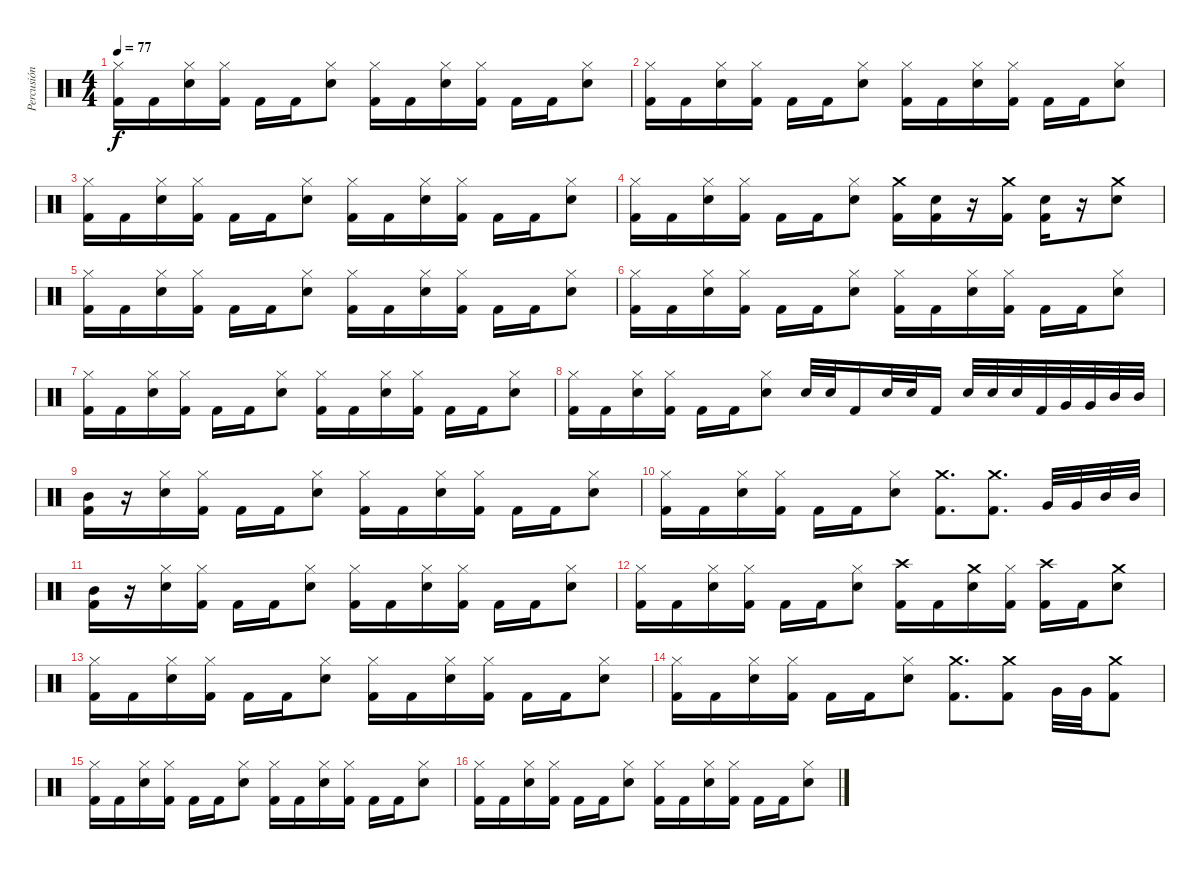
\track ("Percusión" "Percusión") {instrument percussion}
\staff {score}
\articulation defaults
\ts (4 4)
\tempo 77
\clef neutral
\ks c
("Kick (hit) 2" "Hi-Hat (closed)").16{dy f} "Kick (hit) 2".16 ("Electric Snare (hit)" "Hi-Hat (closed)").16 ("Kick (hit) 2" "Hi-Hat (closed)").16 "Kick (hit) 2".16 "Kick (hit) 2".16 ("Electric Snare (hit)" "Hi-Hat (closed)").8 ("Kick (hit) 2" "Hi-Hat (closed)").16 "Kick (hit) 2".16 ("Electric Snare (hit)" "Hi-Hat (closed)").16 ("Kick (hit) 2" "Hi-Hat (closed)").16 "Kick (hit) 2".16 "Kick (hit) 2".16 ("Electric Snare (hit)" "Hi-Hat (closed)").8 |
("Kick (hit) 2" "Hi-Hat (closed)").16 "Kick (hit) 2".16 ("Electric Snare (hit)" "Hi-Hat (closed)").16 ("Kick (hit) 2" "Hi-Hat (closed)").16 "Kick (hit) 2".16 "Kick (hit) 2".16 ("Electric Snare (hit)" "Hi-Hat (closed)").8 ("Kick (hit) 2" "Hi-Hat (closed)").16 "Kick (hit) 2".16 ("Electric Snare (hit)" "Hi-Hat (closed)").16 ("Kick (hit) 2" "Hi-Hat (closed)").16 "Kick (hit) 2".16 "Kick (hit) 2".16 ("Electric Snare (hit)" "Hi-Hat (closed)").8 |
("Kick (hit) 2" "Hi-Hat (closed)").16 "Kick (hit) 2".16 ("Electric Snare (hit)" "Hi-Hat (closed)").16 ("Kick (hit) 2" "Hi-Hat (closed)").16 "Kick (hit) 2".16 "Kick (hit) 2".16 ("Electric Snare (hit)" "Hi-Hat (closed)").8 ("Kick (hit) 2" "Hi-Hat (closed)").16 "Kick (hit) 2".16 ("Electric Snare (hit)" "Hi-Hat (closed)").16 ("Kick (hit) 2" "Hi-Hat (closed)").16 "Kick (hit) 2".16 "Kick (hit) 2".16 ("Electric Snare (hit)" "Hi-Hat (closed)").8 |
("Kick (hit) 2" "Hi-Hat (closed)").16 "Kick (hit) 2".16 ("Electric Snare (hit)" "Hi-Hat (closed)").16 ("Kick (hit) 2" "Hi-Hat (closed)").16 "Kick (hit) 2".16 "Kick (hit) 2".16 ("Electric Snare (hit)" "Hi-Hat (closed)").8 ("Kick (hit) 2" "Crash medium (hit)").16 ("Kick (hit) 2" "Electric Snare (hit)").16 r.16 ("Kick (hit) 2" "Crash medium (hit)").16 ("Kick (hit) 2" "Electric Snare (hit)").16 r.16 ("Electric Snare (hit)" "Crash medium (hit)").8 |
("Kick (hit) 2" "Hi-Hat (closed)").16 "Kick (hit) 2".16 ("Electric Snare (hit)" "Hi-Hat (closed)").16 ("Kick (hit) 2" "Hi-Hat (closed)").16 "Kick (hit) 2".16 "Kick (hit) 2".16 ("Electric Snare (hit)" "Hi-Hat (closed)").8 ("Kick (hit) 2" "Hi-Hat (closed)").16 "Kick (hit) 2".16 ("Electric Snare (hit)" "Hi-Hat (closed)").16 ("Kick (hit) 2" "Hi-Hat (closed)").16 "Kick (hit) 2".16 "Kick (hit) 2".16 ("Electric Snare (hit)" "Hi-Hat (closed)").8 |
("Kick (hit) 2" "Hi-Hat (closed)").16 "Kick (hit) 2".16 ("Electric Snare (hit)" "Hi-Hat (closed)").16 ("Kick (hit) 2" "Hi-Hat (closed)").16 "Kick (hit) 2".16 "Kick (hit) 2".16 ("Electric Snare (hit)" "Hi-Hat (closed)").8 ("Kick (hit) 2" "Hi-Hat (closed)").16 "Kick (hit) 2".16 ("Electric Snare (hit)" "Hi-Hat (closed)").16 ("Kick (hit) 2" "Hi-Hat (closed)").16 "Kick (hit) 2".16 "Kick (hit) 2".16 ("Electric Snare (hit)" "Hi-Hat (closed)").8 |
("Kick (hit) 2" "Hi-Hat (closed)").16 "Kick (hit) 2".16 ("Electric Snare (hit)" "Hi-Hat (closed)").16 ("Kick (hit) 2" "Hi-Hat (closed)").16 "Kick (hit) 2".16 "Kick (hit) 2".16 ("Electric Snare (hit)" "Hi-Hat (closed)").8 ("Kick (hit) 2" "Hi-Hat (closed)").16 "Kick (hit) 2".16 ("Electric Snare (hit)" "Hi-Hat (closed)").16 ("Kick (hit) 2" "Hi-Hat (closed)").16 "Kick (hit) 2".16 "Kick (hit) 2".16 ("Electric Snare (hit)" "Hi-Hat (closed)").8 |
("Kick (hit) 2" "Hi-Hat (closed)").16 "Kick (hit) 2".16 ("Electric Snare (hit)" "Hi-Hat (closed)").16 ("Kick (hit) 2" "Hi-Hat (closed)").16 "Kick (hit) 2".16 "Kick (hit) 2".16 ("Electric Snare (hit)" "Hi-Hat (closed)").8 "Electric Snare (hit)".32 "Electric Snare (hit)".32 "Kick (hit) 2".16 "Electric Snare (hit)".32 "Electric Snare (hit)".32 "Kick (hit) 2".16 "Electric Snare (hit)".32 "Electric Snare (hit)".32 "Electric Snare (hit)".32 "Kick (hit) 2".32 "Very Low Tom (hit)".32 "Very Low Tom (hit)".32 "Mid Tom (hit)".32 "Mid Tom (hit)".32 |
("Kick (hit) 2" "Mid Tom (hit)").16 r.16 ("Electric Snare (hit)" "Hi-Hat (closed)").16 ("Kick (hit) 2" "Hi-Hat (closed)").16 "Kick (hit) 2".16 "Kick (hit) 2".16 ("Electric Snare (hit)" "Hi-Hat (closed)").8 ("Kick (hit) 2" "Hi-Hat (closed)").16 "Kick (hit) 2".16 ("Electric Snare (hit)" "Hi-Hat (closed)").16 ("Kick (hit) 2" "Hi-Hat (closed)").16 "Kick (hit) 2".16 "Kick (hit) 2".16 ("Electric Snare (hit)" "Hi-Hat (closed)").8 |
("Kick (hit) 2" "Hi-Hat (closed)").16 "Kick (hit) 2".16 ("Electric Snare (hit)" "Hi-Hat (closed)").16 ("Kick (hit) 2" "Hi-Hat (closed)").16 "Kick (hit) 2".16 "Kick (hit) 2".16 ("Electric Snare (hit)" "Hi-Hat (closed)").8 ("Kick (hit) 2" "Crash medium (hit)").8{d} ("Kick (hit) 2" "Crash medium (hit)").8{d} "Very Low Tom (hit)".32 "Very Low Tom (hit)".32 "Mid Tom (hit)".32 "Mid Tom (hit)".32 |
("Kick (hit) 2" "Mid Tom (hit)").16 r.16 ("Electric Snare (hit)" "Hi-Hat (closed)").16 ("Kick (hit) 2" "Hi-Hat (closed)").16 "Kick (hit) 2".16 "Kick (hit) 2".16 ("Electric Snare (hit)" "Hi-Hat (closed)").8 ("Kick (hit) 2" "Hi-Hat (closed)").16 "Kick (hit) 2".16 ("Electric Snare (hit)" "Hi-Hat (closed)").16 ("Kick (hit) 2" "Hi-Hat (closed)").16 "Kick (hit) 2".16 "Kick (hit) 2".16 ("Electric Snare (hit)" "Hi-Hat (closed)").8 |
("Kick (hit) 2" "Hi-Hat (closed)").16 "Kick (hit) 2".16 ("Electric Snare (hit)" "Hi-Hat (closed)").16 ("Kick (hit) 2" "Hi-Hat (closed)").16 "Kick (hit) 2".16 "Kick (hit) 2".16 ("Electric Snare (hit)" "Hi-Hat (closed)").8 ("Kick (hit) 2" "Crash high (hit)").16 "Kick (hit) 2".16 ("Electric Snare (hit)" "Crash medium (hit)").16 ("Kick (hit) 2" "Hi-Hat (closed)").16 ("Kick (hit) 2" "Crash high (hit)").16 "Kick (hit) 2".16 ("Electric Snare (hit)" "Crash medium (hit)").8 |
("Kick (hit) 2" "Hi-Hat (closed)").16 "Kick (hit) 2".16 ("Electric Snare (hit)" "Hi-Hat (closed)").16 ("Kick (hit) 2" "Hi-Hat (closed)").16 "Kick (hit) 2".16 "Kick (hit) 2".16 ("Electric Snare (hit)" "Hi-Hat (closed)").8 ("Kick (hit) 2" "Hi-Hat (closed)").16 "Kick (hit) 2".16 ("Electric Snare (hit)" "Hi-Hat (closed)").16 ("Kick (hit) 2" "Hi-Hat (closed)").16 "Kick (hit) 2".16 "Kick (hit) 2".16 ("Electric Snare (hit)" "Hi-Hat (closed)").8 |
("Kick (hit) 2" "Hi-Hat (closed)").16 "Kick (hit) 2".16 ("Electric Snare (hit)" "Hi-Hat (closed)").16 ("Kick (hit) 2" "Hi-Hat (closed)").16 "Kick (hit) 2".16 "Kick (hit) 2".16 ("Electric Snare (hit)" "Hi-Hat (closed)").8 ("Kick (hit) 2" "Crash medium (hit)").8{d} ("Kick (hit) 2" "Crash medium (hit)").8 "Very Low Tom (hit)".32 "Very Low Tom (hit)".32 ("Kick (hit) 2" "Crash medium (hit)").8 |
("Kick (hit) 2" "Hi-Hat (closed)").16 "Kick (hit) 2".16 ("Electric Snare (hit)" "Hi-Hat (closed)").16 ("Kick (hit) 2" "Hi-Hat (closed)").16 "Kick (hit) 2".16 "Kick (hit) 2".16 ("Electric Snare (hit)" "Hi-Hat (closed)").8 ("Kick (hit) 2" "Hi-Hat (closed)").16 "Kick (hit) 2".16 ("Electric Snare (hit)" "Hi-Hat (closed)").16 ("Kick (hit) 2" "Hi-Hat (closed)").16 "Kick (hit) 2".16 "Kick (hit) 2".16 ("Electric Snare (hit)" "Hi-Hat (closed)").8 |
("Kick (hit) 2" "Hi-Hat (closed)").16 "Kick (hit) 2".16 ("Electric Snare (hit)" "Hi-Hat (closed)").16 ("Kick (hit) 2" "Hi-Hat (closed)").16 "Kick (hit) 2".16 "Kick (hit) 2".16 ("Electric Snare (hit)" "Hi-Hat (closed)").8 ("Kick (hit) 2" "Hi-Hat (closed)").16 "Kick (hit) 2".16 ("Electric Snare (hit)" "Hi-Hat (closed)").16 ("Kick (hit) 2" "Hi-Hat (closed)").16 "Kick (hit) 2".16 "Kick (hit) 2".16 ("Electric Snare (hit)" "Hi-Hat (closed)").8
